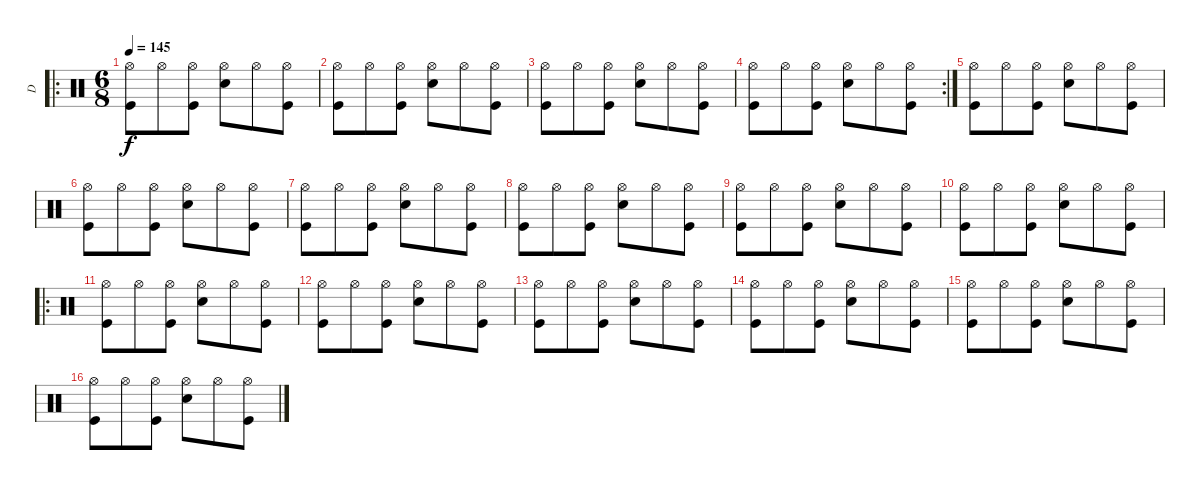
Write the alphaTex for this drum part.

\track ("D" "D") {instrument percussion}
\staff {score}
\articulation defaults
\ro
\ts (6 8)
\tempo 145
\clef neutral
\ks c
("Hi-Hat (open)" "Kick (hit)").8{dy f} "Hi-Hat (open)".8 ("Hi-Hat (open)" "Kick (hit)").8 ("Hi-Hat (open)" "Snare (hit) 2").8 "Hi-Hat (open)".8 ("Hi-Hat (open)" "Kick (hit)").8 |
("Hi-Hat (open)" "Kick (hit)").8 "Hi-Hat (open)".8 ("Hi-Hat (open)" "Kick (hit)").8 ("Hi-Hat (open)" "Snare (hit) 2").8 "Hi-Hat (open)".8 ("Hi-Hat (open)" "Kick (hit)").8 |
("Hi-Hat (open)" "Kick (hit)").8 "Hi-Hat (open)".8 ("Hi-Hat (open)" "Kick (hit)").8 ("Hi-Hat (open)" "Snare (hit) 2").8 "Hi-Hat (open)".8 ("Hi-Hat (open)" "Kick (hit)").8 |
\rc 2
("Hi-Hat (open)" "Kick (hit)").8 "Hi-Hat (open)".8 ("Hi-Hat (open)" "Kick (hit)").8 ("Hi-Hat (open)" "Snare (hit) 2").8 "Hi-Hat (open)".8 ("Hi-Hat (open)" "Kick (hit)").8 |
("Hi-Hat (open)" "Kick (hit)").8 "Hi-Hat (open)".8 ("Hi-Hat (open)" "Kick (hit)").8 ("Hi-Hat (open)" "Snare (hit) 2").8 "Hi-Hat (open)".8 ("Hi-Hat (open)" "Kick (hit)").8 |
("Hi-Hat (open)" "Kick (hit)").8 "Hi-Hat (open)".8 ("Hi-Hat (open)" "Kick (hit)").8 ("Hi-Hat (open)" "Snare (hit) 2").8 "Hi-Hat (open)".8 ("Hi-Hat (open)" "Kick (hit)").8 |
("Hi-Hat (open)" "Kick (hit)").8 "Hi-Hat (open)".8 ("Hi-Hat (open)" "Kick (hit)").8 ("Hi-Hat (open)" "Snare (hit) 2").8 "Hi-Hat (open)".8 ("Hi-Hat (open)" "Kick (hit)").8 |
("Hi-Hat (open)" "Kick (hit)").8 "Hi-Hat (open)".8 ("Hi-Hat (open)" "Kick (hit)").8 ("Hi-Hat (open)" "Snare (hit) 2").8 "Hi-Hat (open)".8 ("Hi-Hat (open)" "Kick (hit)").8 |
("Hi-Hat (open)" "Kick (hit)").8 "Hi-Hat (open)".8 ("Hi-Hat (open)" "Kick (hit)").8 ("Hi-Hat (open)" "Snare (hit) 2").8 "Hi-Hat (open)".8 ("Hi-Hat (open)" "Kick (hit)").8 |
("Hi-Hat (open)" "Kick (hit)").8 "Hi-Hat (open)".8 ("Hi-Hat (open)" "Kick (hit)").8 ("Hi-Hat (open)" "Snare (hit) 2").8 "Hi-Hat (open)".8 ("Hi-Hat (open)" "Kick (hit)").8 |
\ro
("Hi-Hat (open)" "Kick (hit)").8 "Hi-Hat (open)".8 ("Hi-Hat (open)" "Kick (hit)").8 ("Hi-Hat (open)" "Snare (hit) 2").8 "Hi-Hat (open)".8 ("Hi-Hat (open)" "Kick (hit)").8 |
("Hi-Hat (open)" "Kick (hit)").8 "Hi-Hat (open)".8 ("Hi-Hat (open)" "Kick (hit)").8 ("Hi-Hat (open)" "Snare (hit) 2").8 "Hi-Hat (open)".8 ("Hi-Hat (open)" "Kick (hit)").8 |
("Hi-Hat (open)" "Kick (hit)").8 "Hi-Hat (open)".8 ("Hi-Hat (open)" "Kick (hit)").8 ("Hi-Hat (open)" "Snare (hit) 2").8 "Hi-Hat (open)".8 ("Hi-Hat (open)" "Kick (hit)").8 |
("Hi-Hat (open)" "Kick (hit)").8 "Hi-Hat (open)".8 ("Hi-Hat (open)" "Kick (hit)").8 ("Hi-Hat (open)" "Snare (hit) 2").8 "Hi-Hat (open)".8 ("Hi-Hat (open)" "Kick (hit)").8 |
("Hi-Hat (open)" "Kick (hit)").8 "Hi-Hat (open)".8 ("Hi-Hat (open)" "Kick (hit)").8 ("Hi-Hat (open)" "Snare (hit) 2").8 "Hi-Hat (open)".8 ("Hi-Hat (open)" "Kick (hit)").8 |
("Hi-Hat (open)" "Kick (hit)").8 "Hi-Hat (open)".8 ("Hi-Hat (open)" "Kick (hit)").8 ("Hi-Hat (open)" "Snare (hit) 2").8 "Hi-Hat (open)".8 ("Hi-Hat (open)" "Kick (hit)").8
